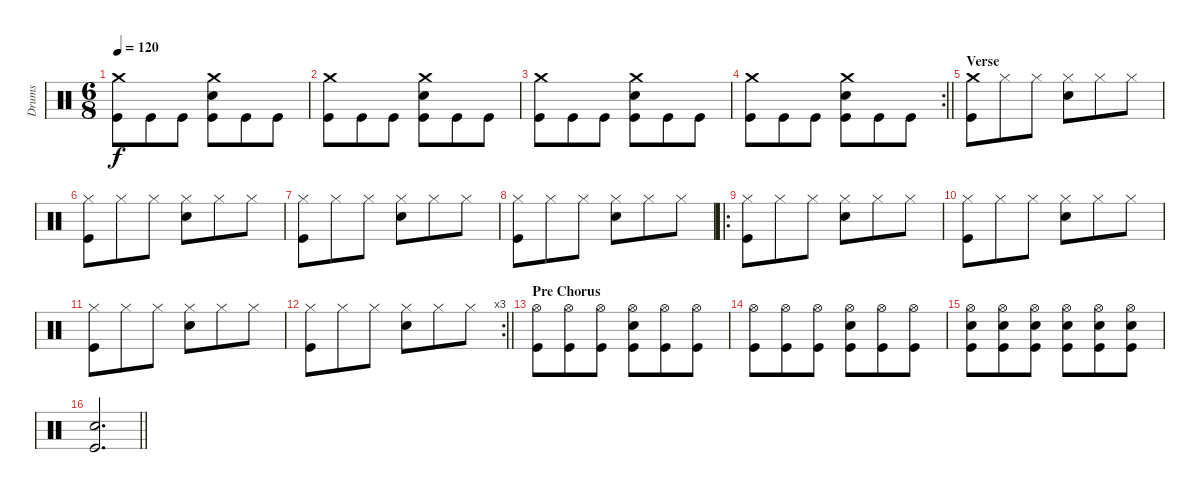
\track ("Drums" "Drums") {instrument percussion}
\staff {score}
\articulation defaults
\ts (6 8)
\tempo 120
\clef neutral
\ks c
("Crash medium (hit)" "Kick (hit)").8{dy f} "Kick (hit)".8 "Kick (hit)".8 ("Crash medium (hit)" "Snare (hit) 2" "Kick (hit)").8 "Kick (hit)".8 "Kick (hit)".8 |
("Crash medium (hit)" "Kick (hit)").8 "Kick (hit)".8 "Kick (hit)".8 ("Crash medium (hit)" "Snare (hit) 2" "Kick (hit)").8 "Kick (hit)".8 "Kick (hit)".8 |
("Crash medium (hit)" "Kick (hit)").8 "Kick (hit)".8 "Kick (hit)".8 ("Crash medium (hit)" "Snare (hit) 2" "Kick (hit)").8 "Kick (hit)".8 "Kick (hit)".8 |
\rc 2
\barLineRight lightlight
("Crash medium (hit)" "Kick (hit)").8 "Kick (hit)".8 "Kick (hit)".8 ("Crash medium (hit)" "Snare (hit) 2" "Kick (hit)").8 "Kick (hit)".8 "Kick (hit)".8 |
\section ("" "Verse")
("Crash medium (hit)" "Kick (hit)").8 "Hi-Hat (closed)".8 "Hi-Hat (closed)".8 ("Hi-Hat (closed)" "Snare (hit) 2").8 "Hi-Hat (closed)".8 "Hi-Hat (closed)".8 |
("Hi-Hat (closed)" "Kick (hit)").8 "Hi-Hat (closed)".8 "Hi-Hat (closed)".8 ("Hi-Hat (closed)" "Snare (hit) 2").8 "Hi-Hat (closed)".8 "Hi-Hat (closed)".8 |
("Hi-Hat (closed)" "Kick (hit)").8 "Hi-Hat (closed)".8 "Hi-Hat (closed)".8 ("Hi-Hat (closed)" "Snare (hit) 2").8 "Hi-Hat (closed)".8 "Hi-Hat (closed)".8 |
("Hi-Hat (closed)" "Kick (hit)").8 "Hi-Hat (closed)".8 "Hi-Hat (closed)".8 ("Hi-Hat (closed)" "Snare (hit) 2").8 "Hi-Hat (closed)".8 "Hi-Hat (closed)".8 |
\ro
("Hi-Hat (closed)" "Kick (hit)").8 "Hi-Hat (closed)".8 "Hi-Hat (closed)".8 ("Hi-Hat (closed)" "Snare (hit) 2").8 "Hi-Hat (closed)".8 "Hi-Hat (closed)".8 |
("Hi-Hat (closed)" "Kick (hit)").8 "Hi-Hat (closed)".8 "Hi-Hat (closed)".8 ("Hi-Hat (closed)" "Snare (hit) 2").8 "Hi-Hat (closed)".8 "Hi-Hat (closed)".8 |
("Hi-Hat (closed)" "Kick (hit)").8 "Hi-Hat (closed)".8 "Hi-Hat (closed)".8 ("Hi-Hat (closed)" "Snare (hit) 2").8 "Hi-Hat (closed)".8 "Hi-Hat (closed)".8 |
\rc 3
\barLineRight lightlight
("Hi-Hat (closed)" "Kick (hit)").8 "Hi-Hat (closed)".8 "Hi-Hat (closed)".8 ("Hi-Hat (closed)" "Snare (hit) 2").8 "Hi-Hat (closed)".8 "Hi-Hat (closed)".8 |
\section ("" "Pre Chorus")
("Hi-Hat (open)" "Kick (hit)").8 ("Hi-Hat (open)" "Kick (hit)").8 ("Hi-Hat (open)" "Kick (hit)").8 ("Hi-Hat (open)" "Snare (hit) 2" "Kick (hit)").8 ("Hi-Hat (open)" "Kick (hit)").8 ("Hi-Hat (open)" "Kick (hit)").8 |
("Hi-Hat (open)" "Kick (hit)").8 ("Hi-Hat (open)" "Kick (hit)").8 ("Hi-Hat (open)" "Kick (hit)").8 ("Hi-Hat (open)" "Snare (hit) 2" "Kick (hit)").8 ("Hi-Hat (open)" "Kick (hit)").8 ("Hi-Hat (open)" "Kick (hit)").8 |
("Hi-Hat (open)" "Snare (hit) 2" "Kick (hit)").8 ("Hi-Hat (open)" "Snare (hit) 2" "Kick (hit)").8 ("Hi-Hat (open)" "Snare (hit) 2" "Kick (hit)").8 ("Hi-Hat (open)" "Snare (hit) 2" "Kick (hit)").8 ("Hi-Hat (open)" "Snare (hit) 2" "Kick (hit)").8 ("Hi-Hat (open)" "Snare (hit) 2" "Kick (hit)").8 |
\barLineRight lightlight
("Snare (hit) 2" "Kick (hit)").2{d}
